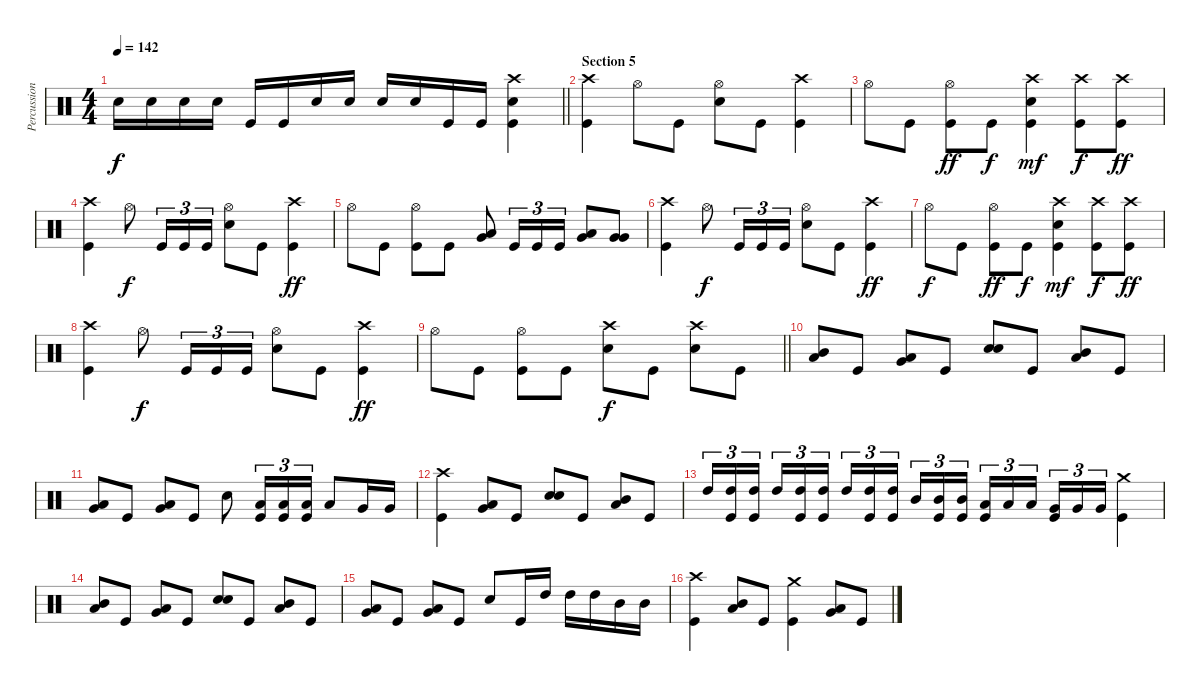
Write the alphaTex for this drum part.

\track ("Percussion" "Percussion") {instrument percussion}
\staff {score}
\articulation defaults
\ts (4 4)
\tempo 142
\clef neutral
\barLineRight lightlight
\ks c "Snare (hit) 2".16{dy f} "Snare (hit) 2".16 "Snare (hit) 2".16 "Snare (hit) 2".16 "Kick (hit)".16 "Kick (hit)".16 "Snare (hit) 2".16 "Snare (hit) 2".16 "Snare (hit) 2".16 "Snare (hit) 2".16 "Kick (hit)".16 "Kick (hit)".16
("Snare (hit) 2" "Crash high (hit)" "Kick (hit)").4 |
\section ("" "Section 5")
("Crash high (hit)" "Kick (hit)").4 "Hi-Hat (open)".8 "Kick (hit)".8 ("Snare (hit) 2" "Hi-Hat (open)").8 "Kick (hit)".8 ("Kick (hit)" "Crash high (hit)").4 |
"Hi-Hat (open)".8 "Kick (hit)".8 ("Hi-Hat (open)" "Kick (hit)").8{dy ff} "Kick (hit)".8{dy f} ("Snare (hit) 2" "Crash high (hit)" "Kick (hit)").4{dy mf} ("Crash high (hit)" "Kick (hit)").8{dy f} ("Crash high (hit)" "Kick (hit)").8{dy ff} |
("Crash high (hit)" "Kick (hit)").4 "Hi-Hat (open)".8{dy f} "Kick (hit)".16{tu (3 2)} "Kick (hit)".16{tu (3 2)} "Kick (hit)".16{tu (3 2)} ("Snare (hit) 2" "Hi-Hat (open)").8 "Kick (hit)".8 ("Kick (hit)" "Crash high (hit)").4{dy ff} |
"Hi-Hat (open)".8 "Kick (hit)".8 ("Hi-Hat (open)" "Kick (hit)").8 "Kick (hit)".8 ("Low Tom (hit)" "Very Low Tom (hit)").8 "Kick (hit)".16{tu (3 2)} "Kick (hit)".16{tu (3 2)} "Kick (hit)".16{tu (3 2)} ("Very Low Tom (hit)" "Low Floor Tom (hit)").8 ("Very Low Tom (hit)" "Very Low Tom (hit)").8 |
("Crash high (hit)" "Kick (hit)").4 "Hi-Hat (open)".8{dy f} "Kick (hit)".16{tu (3 2)} "Kick (hit)".16{tu (3 2)} "Kick (hit)".16{tu (3 2)} ("Snare (hit) 2" "Hi-Hat (open)").8 "Kick (hit)".8 ("Kick (hit)" "Crash high (hit)").4{dy ff} |
"Hi-Hat (open)".8{dy f} "Kick (hit)".8 ("Hi-Hat (open)" "Kick (hit)").8{dy ff} "Kick (hit)".8{dy f} ("Snare (hit) 2" "Crash high (hit)" "Kick (hit)").4{dy mf} ("Crash high (hit)" "Kick (hit)").8{dy f} ("Crash high (hit)" "Kick (hit)").8{dy ff} |
("Crash high (hit)" "Kick (hit)").4 "Hi-Hat (open)".8{dy f} "Kick (hit)".16{tu (3 2)} "Kick (hit)".16{tu (3 2)} "Kick (hit)".16{tu (3 2)} ("Snare (hit) 2" "Hi-Hat (open)").8 "Kick (hit)".8 ("Kick (hit)" "Crash high (hit)").4{dy ff} |
\barLineRight lightlight "Hi-Hat (open)".8 "Kick (hit)".8
("Hi-Hat (open)" "Kick (hit)").8 "Kick (hit)".8 ("Crash high (hit)" "Snare (hit) 2").8{dy f} "Kick (hit)".8 ("Crash high (hit)" "Snare (hit) 2").8 "Kick (hit)".8 |
("Mid Tom (hit)" "Low Tom (hit)").8 "Kick (hit)".8 ("Very Low Tom (hit)" "Low Tom (hit)").8 "Kick (hit)".8 ("Snare (hit) 2" "Snare (hit) 2").8 "Kick (hit)".8 ("Low Tom (hit)" "Mid Tom (hit)").8 "Kick (hit)".8 |
("Very Low Tom (hit)" "Low Tom (hit)").8 "Kick (hit)".8 ("Low Tom (hit)" "Very Low Tom (hit)").8 "Kick (hit)".8 "Snare (hit) 2".8 ("Low Tom (hit)" "Kick (hit)").16{tu (3 2)} ("Low Tom (hit)" "Kick (hit)").16{tu (3 2)} ("Low Tom (hit)" "Kick (hit)").16{tu (3 2)} "Low Tom (hit)".8 "Very Low Tom (hit)".16 "Very Low Tom (hit)".16 |
("Crash high (hit)" "Kick (hit)").4 ("Very Low Tom (hit)" "Low Tom (hit)").8 "Kick (hit)".8 ("Snare (hit) 2" "Snare (hit) 2").8 "Kick (hit)".8 ("Low Tom (hit)" "Mid Tom (hit)").8 "Kick (hit)".8 |
"High Tom (hit)".16{tu (3 2)} ("High Tom (hit)" "Kick (hit)").16{tu (3 2)} ("High Tom (hit)" "Kick (hit)").16{tu (3 2)} "High Tom (hit)".16{tu (3 2)} ("High Tom (hit)" "Kick (hit)").16{tu (3 2)} ("High Tom (hit)" "Kick (hit)").16{tu (3 2)} "High Tom (hit)".16{tu (3 2)} ("High Tom (hit)" "Kick (hit)").16{tu (3 2)} ("High Tom (hit)" "Kick (hit)").16{tu (3 2)} "Mid Tom (hit)".16{tu (3 2)} ("Mid Tom (hit)" "Kick (hit)").16{tu (3 2)} ("Mid Tom (hit)" "Kick (hit)").16{tu (3 2)} ("Kick (hit)" "Low Tom (hit)").16{tu (3 2)} "Low Tom (hit)".16{tu (3 2)} "Low Tom (hit)".16{tu (3 2)} ("Kick (hit)" "Very Low Tom (hit)").16{tu (3 2)} "Very Low Tom (hit)".16{tu (3 2)} "Very Low Tom (hit)".16{tu (3 2)} ("Crash medium (hit)" "Kick (hit)").4 |
("Mid Tom (hit)" "Low Tom (hit)").8 "Kick (hit)".8 ("Very Low Tom (hit)" "Low Tom (hit)").8 "Kick (hit)".8 ("Snare (hit) 2" "Snare (hit) 2").8 "Kick (hit)".8 ("Low Tom (hit)" "Mid Tom (hit)").8 "Kick (hit)".8 |
("Very Low Tom (hit)" "Low Tom (hit)").8 "Kick (hit)".8 ("Low Tom (hit)" "Very Low Tom (hit)").8 "Kick (hit)".8 "Snare (hit) 2".8 "Kick (hit)".16 "High Tom (hit)".16 "High Tom (hit)".16 "High Tom (hit)".16 "Mid Tom (hit)".16 "Mid Tom (hit)".16 |
("Crash high (hit)" "Kick (hit)").4 ("Mid Tom (hit)" "Low Tom (hit)").8 "Kick (hit)".8 ("Crash medium (hit)" "Kick (hit)").4 ("Low Tom (hit)" "Very Low Tom (hit)").8 "Kick (hit)".8
